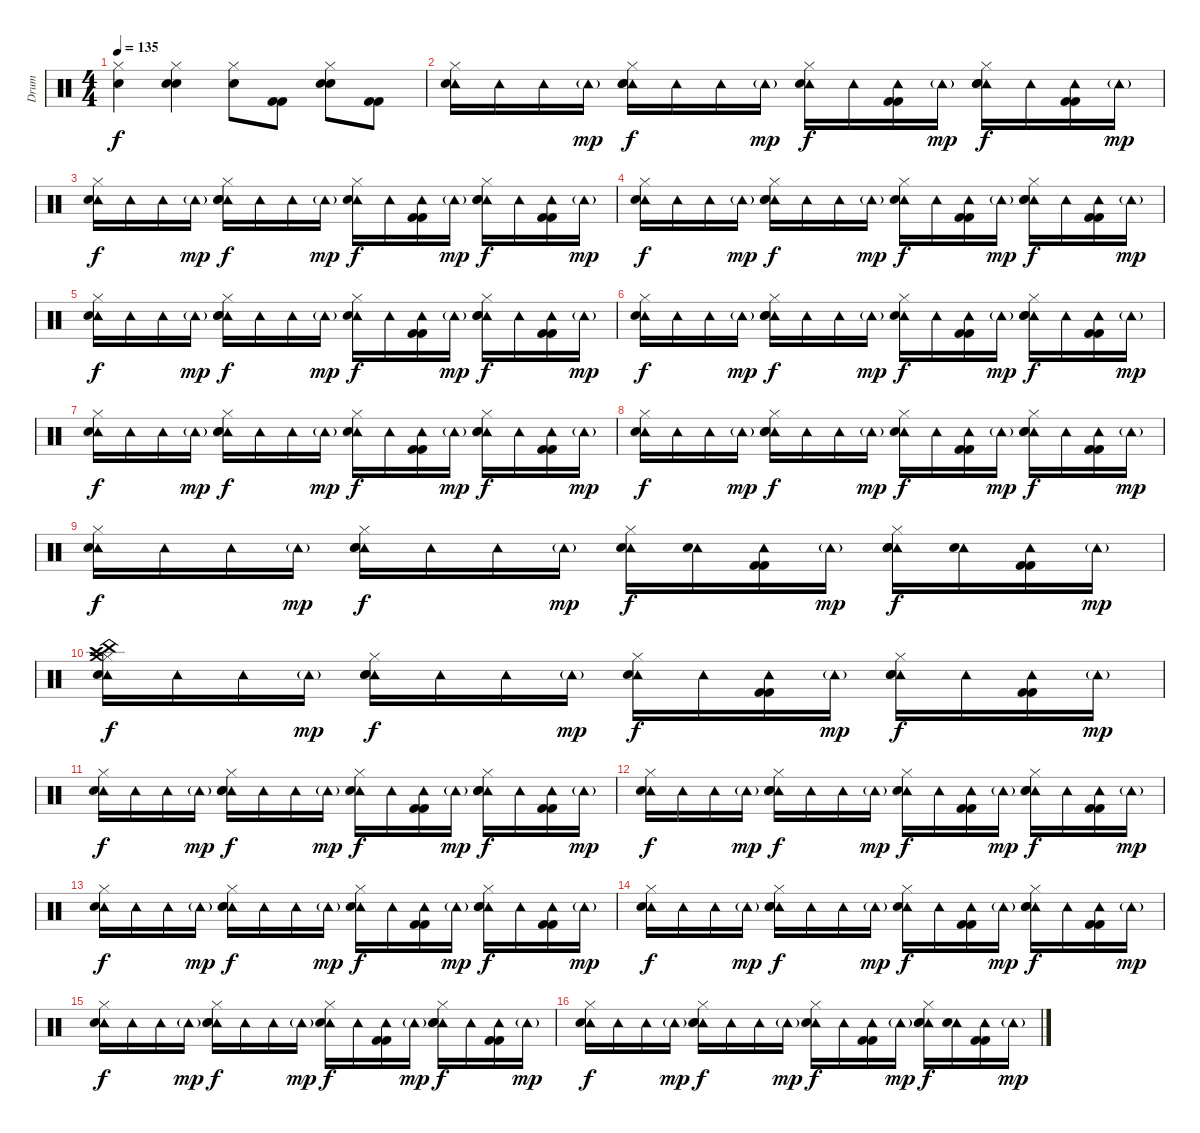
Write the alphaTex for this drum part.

\track ("Drum" "Drum") {instrument percussion}
\staff {score}
\articulation defaults
\ts (4 4)
\tempo 135
\clef neutral
\ks c
("Hi-Hat (closed)" "Electric Snare (hit)").4{dy f} ("Hi-Hat (closed)" "Hand Clap (hit)" "Electric Snare (hit)").4 ("Hi-Hat (closed)" "Electric Snare (hit)").8 ("Kick (hit) 2" "Kick (hit) 2").8 ("Hi-Hat (closed)" "Hand Clap (hit)" "Electric Snare (hit)").8 ("Kick (hit) 2" "Kick (hit) 2").8 |
("Tambourine (hit)" "Hi-Hat (closed)" "Electric Snare (hit)").16 "Tambourine (hit)".16 "Tambourine (hit)".16 "Tambourine (hit)"{g}.16{dy mp} ("Tambourine (hit)" "Hi-Hat (closed)" "Hand Clap (hit)" "Electric Snare (hit)").16{dy f} "Tambourine (hit)".16 "Tambourine (hit)".16 "Tambourine (hit)"{g}.16{dy mp} ("Tambourine (hit)" "Hi-Hat (closed)" "Electric Snare (hit)").16{dy f} "Tambourine (hit)".16 ("Tambourine (hit)" "Kick (hit) 2" "Kick (hit) 2").16 "Tambourine (hit)"{g}.16{dy mp} ("Tambourine (hit)" "Hi-Hat (closed)" "Hand Clap (hit)" "Electric Snare (hit)").16{dy f} "Tambourine (hit)".16 ("Tambourine (hit)" "Kick (hit) 2" "Kick (hit) 2").16 "Tambourine (hit)"{g}.16{dy mp} |
("Tambourine (hit)" "Hi-Hat (closed)" "Electric Snare (hit)").16{dy f} "Tambourine (hit)".16 "Tambourine (hit)".16 "Tambourine (hit)"{g}.16{dy mp} ("Tambourine (hit)" "Hi-Hat (closed)" "Hand Clap (hit)" "Electric Snare (hit)").16{dy f} "Tambourine (hit)".16 "Tambourine (hit)".16 "Tambourine (hit)"{g}.16{dy mp} ("Tambourine (hit)" "Hi-Hat (closed)" "Electric Snare (hit)").16{dy f} "Tambourine (hit)".16 ("Tambourine (hit)" "Kick (hit) 2" "Kick (hit) 2").16 "Tambourine (hit)"{g}.16{dy mp} ("Tambourine (hit)" "Hi-Hat (closed)" "Hand Clap (hit)" "Electric Snare (hit)").16{dy f} "Tambourine (hit)".16 ("Tambourine (hit)" "Kick (hit) 2" "Kick (hit) 2").16 "Tambourine (hit)"{g}.16{dy mp} |
("Tambourine (hit)" "Hi-Hat (closed)" "Electric Snare (hit)").16{dy f} "Tambourine (hit)".16 "Tambourine (hit)".16 "Tambourine (hit)"{g}.16{dy mp} ("Tambourine (hit)" "Hi-Hat (closed)" "Hand Clap (hit)" "Electric Snare (hit)").16{dy f} "Tambourine (hit)".16 "Tambourine (hit)".16 "Tambourine (hit)"{g}.16{dy mp} ("Tambourine (hit)" "Hi-Hat (closed)" "Electric Snare (hit)").16{dy f} "Tambourine (hit)".16 ("Tambourine (hit)" "Kick (hit) 2" "Kick (hit) 2").16 "Tambourine (hit)"{g}.16{dy mp} ("Tambourine (hit)" "Hi-Hat (closed)" "Hand Clap (hit)" "Electric Snare (hit)").16{dy f} "Tambourine (hit)".16 ("Tambourine (hit)" "Kick (hit) 2" "Kick (hit) 2").16 "Tambourine (hit)"{g}.16{dy mp} |
("Tambourine (hit)" "Hi-Hat (closed)" "Electric Snare (hit)").16{dy f} "Tambourine (hit)".16 "Tambourine (hit)".16 "Tambourine (hit)"{g}.16{dy mp} ("Tambourine (hit)" "Hi-Hat (closed)" "Hand Clap (hit)" "Electric Snare (hit)").16{dy f} "Tambourine (hit)".16 "Tambourine (hit)".16 "Tambourine (hit)"{g}.16{dy mp} ("Tambourine (hit)" "Hi-Hat (closed)" "Electric Snare (hit)").16{dy f} "Tambourine (hit)".16 ("Tambourine (hit)" "Kick (hit) 2" "Kick (hit) 2").16 "Tambourine (hit)"{g}.16{dy mp} ("Tambourine (hit)" "Hi-Hat (closed)" "Hand Clap (hit)" "Electric Snare (hit)").16{dy f} "Tambourine (hit)".16 ("Tambourine (hit)" "Kick (hit) 2" "Kick (hit) 2").16 "Tambourine (hit)"{g}.16{dy mp} |
("Tambourine (hit)" "Hi-Hat (closed)" "Electric Snare (hit)").16{dy f} "Tambourine (hit)".16 "Tambourine (hit)".16 "Tambourine (hit)"{g}.16{dy mp} ("Tambourine (hit)" "Hi-Hat (closed)" "Hand Clap (hit)" "Electric Snare (hit)").16{dy f} "Tambourine (hit)".16 "Tambourine (hit)".16 "Tambourine (hit)"{g}.16{dy mp} ("Tambourine (hit)" "Hi-Hat (closed)" "Electric Snare (hit)").16{dy f} "Tambourine (hit)".16 ("Tambourine (hit)" "Kick (hit) 2" "Kick (hit) 2").16 "Tambourine (hit)"{g}.16{dy mp} ("Tambourine (hit)" "Hi-Hat (closed)" "Hand Clap (hit)" "Electric Snare (hit)").16{dy f} "Tambourine (hit)".16 ("Tambourine (hit)" "Kick (hit) 2" "Kick (hit) 2").16 "Tambourine (hit)"{g}.16{dy mp} |
("Tambourine (hit)" "Hi-Hat (closed)" "Electric Snare (hit)").16{dy f} "Tambourine (hit)".16 "Tambourine (hit)".16 "Tambourine (hit)"{g}.16{dy mp} ("Tambourine (hit)" "Hi-Hat (closed)" "Hand Clap (hit)" "Electric Snare (hit)").16{dy f} "Tambourine (hit)".16 "Tambourine (hit)".16 "Tambourine (hit)"{g}.16{dy mp} ("Tambourine (hit)" "Hi-Hat (closed)" "Electric Snare (hit)").16{dy f} "Tambourine (hit)".16 ("Tambourine (hit)" "Kick (hit) 2" "Kick (hit) 2").16 "Tambourine (hit)"{g}.16{dy mp} ("Tambourine (hit)" "Hi-Hat (closed)" "Hand Clap (hit)" "Electric Snare (hit)").16{dy f} "Tambourine (hit)".16 ("Tambourine (hit)" "Kick (hit) 2" "Kick (hit) 2").16 "Tambourine (hit)"{g}.16{dy mp} |
("Tambourine (hit)" "Hi-Hat (closed)" "Electric Snare (hit)").16{dy f} "Tambourine (hit)".16 "Tambourine (hit)".16 "Tambourine (hit)"{g}.16{dy mp} ("Tambourine (hit)" "Hi-Hat (closed)" "Hand Clap (hit)" "Electric Snare (hit)").16{dy f} "Tambourine (hit)".16 "Tambourine (hit)".16 "Tambourine (hit)"{g}.16{dy mp} ("Tambourine (hit)" "Hi-Hat (closed)" "Electric Snare (hit)").16{dy f} "Tambourine (hit)".16 ("Tambourine (hit)" "Kick (hit) 2" "Kick (hit) 2").16 "Tambourine (hit)"{g}.16{dy mp} ("Tambourine (hit)" "Hi-Hat (closed)" "Hand Clap (hit)" "Electric Snare (hit)").16{dy f} "Tambourine (hit)".16 ("Tambourine (hit)" "Kick (hit) 2" "Kick (hit) 2").16 "Tambourine (hit)"{g}.16{dy mp} |
("Tambourine (hit)" "Hi-Hat (closed)" "Electric Snare (hit)").16{dy f} "Tambourine (hit)".16 "Tambourine (hit)".16 "Tambourine (hit)"{g}.16{dy mp} ("Tambourine (hit)" "Hi-Hat (closed)" "Hand Clap (hit)" "Electric Snare (hit)").16{dy f} "Tambourine (hit)".16 "Tambourine (hit)".16 "Tambourine (hit)"{g}.16{dy mp} ("Tambourine (hit)" "Hi-Hat (closed)" "Electric Snare (hit)").16{dy f} ("Tambourine (hit)" "Electric Snare (hit)").16 ("Tambourine (hit)" "Kick (hit) 2" "Kick (hit) 2").16 "Tambourine (hit)"{g}.16{dy mp} ("Tambourine (hit)" "Hi-Hat (closed)" "Hand Clap (hit)" "Electric Snare (hit)").16{dy f} ("Tambourine (hit)" "Electric Snare (hit)").16 ("Tambourine (hit)" "Kick (hit) 2" "Kick (hit) 2").16 "Tambourine (hit)"{g}.16{dy mp} |
("China (hit)" "Tambourine (hit)" "Hi-Hat (closed)" "Crash high (hit)" "Electric Snare (hit)" "Crash medium (hit)").16{dy f} "Tambourine (hit)".16 "Tambourine (hit)".16 "Tambourine (hit)"{g}.16{dy mp} ("Tambourine (hit)" "Hi-Hat (closed)" "Hand Clap (hit)" "Electric Snare (hit)").16{dy f} "Tambourine (hit)".16 "Tambourine (hit)".16 "Tambourine (hit)"{g}.16{dy mp} ("Tambourine (hit)" "Hi-Hat (closed)" "Electric Snare (hit)").16{dy f} "Tambourine (hit)".16 ("Tambourine (hit)" "Kick (hit) 2" "Kick (hit) 2").16 "Tambourine (hit)"{g}.16{dy mp} ("Tambourine (hit)" "Hi-Hat (closed)" "Hand Clap (hit)" "Electric Snare (hit)").16{dy f} "Tambourine (hit)".16 ("Tambourine (hit)" "Kick (hit) 2" "Kick (hit) 2").16 "Tambourine (hit)"{g}.16{dy mp} |
("Tambourine (hit)" "Hi-Hat (closed)" "Electric Snare (hit)").16{dy f} "Tambourine (hit)".16 "Tambourine (hit)".16 "Tambourine (hit)"{g}.16{dy mp} ("Tambourine (hit)" "Hi-Hat (closed)" "Hand Clap (hit)" "Electric Snare (hit)").16{dy f} "Tambourine (hit)".16 "Tambourine (hit)".16 "Tambourine (hit)"{g}.16{dy mp} ("Tambourine (hit)" "Hi-Hat (closed)" "Electric Snare (hit)").16{dy f} "Tambourine (hit)".16 ("Tambourine (hit)" "Kick (hit) 2" "Kick (hit) 2").16 "Tambourine (hit)"{g}.16{dy mp} ("Tambourine (hit)" "Hi-Hat (closed)" "Hand Clap (hit)" "Electric Snare (hit)").16{dy f} "Tambourine (hit)".16 ("Tambourine (hit)" "Kick (hit) 2" "Kick (hit) 2").16 "Tambourine (hit)"{g}.16{dy mp} |
("Tambourine (hit)" "Hi-Hat (closed)" "Electric Snare (hit)").16{dy f} "Tambourine (hit)".16 "Tambourine (hit)".16 "Tambourine (hit)"{g}.16{dy mp} ("Tambourine (hit)" "Hi-Hat (closed)" "Hand Clap (hit)" "Electric Snare (hit)").16{dy f} "Tambourine (hit)".16 "Tambourine (hit)".16 "Tambourine (hit)"{g}.16{dy mp} ("Tambourine (hit)" "Hi-Hat (closed)" "Electric Snare (hit)").16{dy f} "Tambourine (hit)".16 ("Tambourine (hit)" "Kick (hit) 2" "Kick (hit) 2").16 "Tambourine (hit)"{g}.16{dy mp} ("Tambourine (hit)" "Hi-Hat (closed)" "Hand Clap (hit)" "Electric Snare (hit)").16{dy f} "Tambourine (hit)".16 ("Tambourine (hit)" "Kick (hit) 2" "Kick (hit) 2").16 "Tambourine (hit)"{g}.16{dy mp} |
("Tambourine (hit)" "Hi-Hat (closed)" "Electric Snare (hit)").16{dy f} "Tambourine (hit)".16 "Tambourine (hit)".16 "Tambourine (hit)"{g}.16{dy mp} ("Tambourine (hit)" "Hi-Hat (closed)" "Hand Clap (hit)" "Electric Snare (hit)").16{dy f} "Tambourine (hit)".16 "Tambourine (hit)".16 "Tambourine (hit)"{g}.16{dy mp} ("Tambourine (hit)" "Hi-Hat (closed)" "Electric Snare (hit)").16{dy f} "Tambourine (hit)".16 ("Tambourine (hit)" "Kick (hit) 2" "Kick (hit) 2").16 "Tambourine (hit)"{g}.16{dy mp} ("Tambourine (hit)" "Hi-Hat (closed)" "Hand Clap (hit)" "Electric Snare (hit)").16{dy f} "Tambourine (hit)".16 ("Tambourine (hit)" "Kick (hit) 2" "Kick (hit) 2").16 "Tambourine (hit)"{g}.16{dy mp} |
("Tambourine (hit)" "Hi-Hat (closed)" "Electric Snare (hit)").16{dy f} "Tambourine (hit)".16 "Tambourine (hit)".16 "Tambourine (hit)"{g}.16{dy mp} ("Tambourine (hit)" "Hi-Hat (closed)" "Hand Clap (hit)" "Electric Snare (hit)").16{dy f} "Tambourine (hit)".16 "Tambourine (hit)".16 "Tambourine (hit)"{g}.16{dy mp} ("Tambourine (hit)" "Hi-Hat (closed)" "Electric Snare (hit)").16{dy f} "Tambourine (hit)".16 ("Tambourine (hit)" "Kick (hit) 2" "Kick (hit) 2").16 "Tambourine (hit)"{g}.16{dy mp} ("Tambourine (hit)" "Hi-Hat (closed)" "Hand Clap (hit)" "Electric Snare (hit)").16{dy f} "Tambourine (hit)".16 ("Tambourine (hit)" "Kick (hit) 2" "Kick (hit) 2").16 "Tambourine (hit)"{g}.16{dy mp} |
("Tambourine (hit)" "Hi-Hat (closed)" "Electric Snare (hit)").16{dy f} "Tambourine (hit)".16 "Tambourine (hit)".16 "Tambourine (hit)"{g}.16{dy mp} ("Tambourine (hit)" "Hi-Hat (closed)" "Hand Clap (hit)" "Electric Snare (hit)").16{dy f} "Tambourine (hit)".16 "Tambourine (hit)".16 "Tambourine (hit)"{g}.16{dy mp} ("Tambourine (hit)" "Hi-Hat (closed)" "Electric Snare (hit)").16{dy f} "Tambourine (hit)".16 ("Tambourine (hit)" "Kick (hit) 2" "Kick (hit) 2").16 "Tambourine (hit)"{g}.16{dy mp} ("Tambourine (hit)" "Hi-Hat (closed)" "Hand Clap (hit)" "Electric Snare (hit)").16{dy f} "Tambourine (hit)".16 ("Tambourine (hit)" "Kick (hit) 2" "Kick (hit) 2").16 "Tambourine (hit)"{g}.16{dy mp} |
("Tambourine (hit)" "Hi-Hat (closed)" "Electric Snare (hit)").16{dy f} "Tambourine (hit)".16 "Tambourine (hit)".16 "Tambourine (hit)"{g}.16{dy mp} ("Tambourine (hit)" "Hi-Hat (closed)" "Hand Clap (hit)" "Electric Snare (hit)").16{dy f} "Tambourine (hit)".16 "Tambourine (hit)".16 "Tambourine (hit)"{g}.16{dy mp} ("Tambourine (hit)" "Hi-Hat (closed)" "Electric Snare (hit)").16{dy f} "Tambourine (hit)".16 ("Tambourine (hit)" "Kick (hit) 2" "Kick (hit) 2").16 "Tambourine (hit)"{g}.16{dy mp} ("Tambourine (hit)" "Hi-Hat (closed)" "Hand Clap (hit)" "Electric Snare (hit)").16{dy f} ("Tambourine (hit)" "Electric Snare (hit)").16 ("Tambourine (hit)" "Kick (hit) 2" "Kick (hit) 2").16 "Tambourine (hit)"{g}.16{dy mp}
